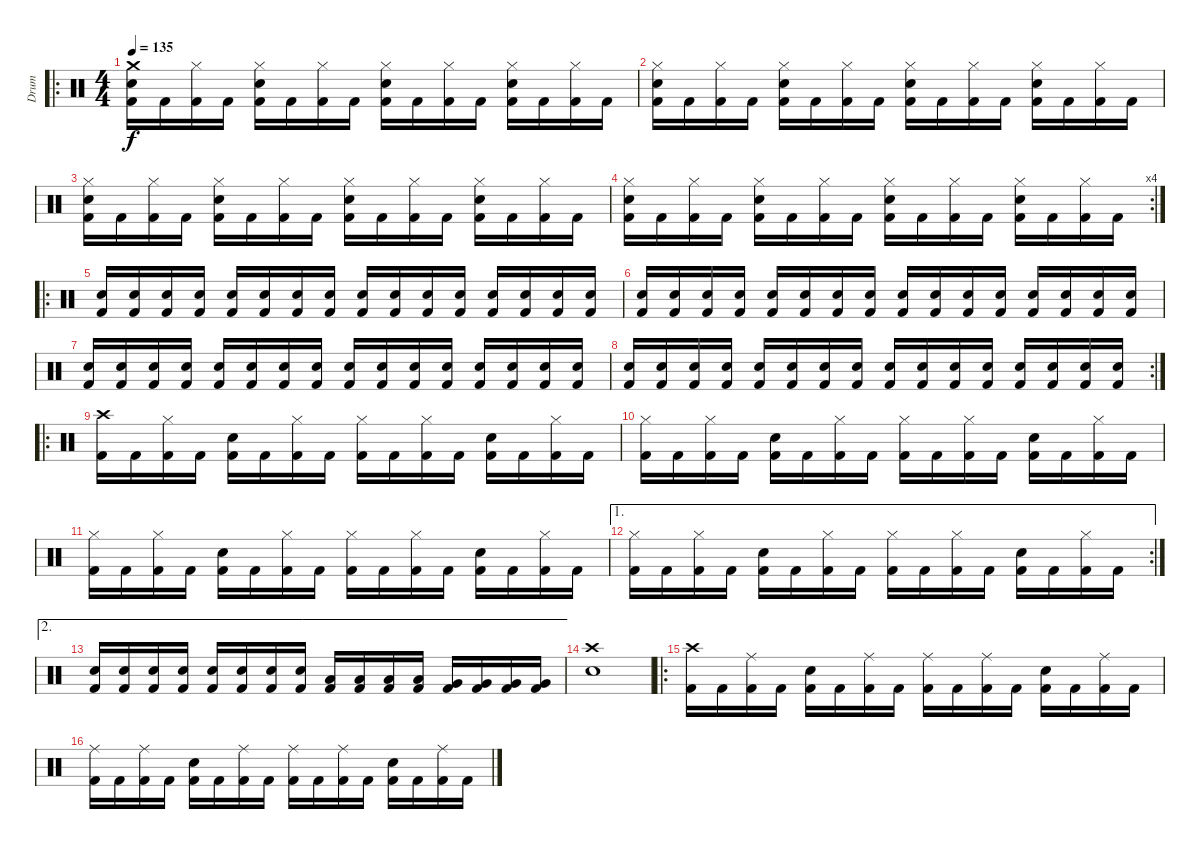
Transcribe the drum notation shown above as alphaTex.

\track ("Drum" "Drum") {instrument percussion}
\staff {score}
\articulation defaults
\ro
\ts (4 4)
\tempo 135
\clef neutral
\ks c
("Crash medium (hit)" "Electric Snare (hit)" "Kick (hit) 2").16{dy f} "Kick (hit) 2".16 ("Hi-Hat (closed)" "Kick (hit) 2").16 "Kick (hit) 2".16 ("Hi-Hat (closed)" "Electric Snare (hit)" "Kick (hit) 2").16 "Kick (hit) 2".16 ("Hi-Hat (closed)" "Kick (hit) 2").16 "Kick (hit) 2".16 ("Hi-Hat (closed)" "Electric Snare (hit)" "Kick (hit) 2").16 "Kick (hit) 2".16 ("Hi-Hat (closed)" "Kick (hit) 2").16 "Kick (hit) 2".16 ("Hi-Hat (closed)" "Electric Snare (hit)" "Kick (hit) 2").16 "Kick (hit) 2".16 ("Hi-Hat (closed)" "Kick (hit) 2").16 "Kick (hit) 2".16 |
("Hi-Hat (closed)" "Electric Snare (hit)" "Kick (hit) 2").16 "Kick (hit) 2".16 ("Hi-Hat (closed)" "Kick (hit) 2").16 "Kick (hit) 2".16 ("Hi-Hat (closed)" "Electric Snare (hit)" "Kick (hit) 2").16 "Kick (hit) 2".16 ("Hi-Hat (closed)" "Kick (hit) 2").16 "Kick (hit) 2".16 ("Hi-Hat (closed)" "Electric Snare (hit)" "Kick (hit) 2").16 "Kick (hit) 2".16 ("Hi-Hat (closed)" "Kick (hit) 2").16 "Kick (hit) 2".16 ("Hi-Hat (closed)" "Electric Snare (hit)" "Kick (hit) 2").16 "Kick (hit) 2".16 ("Hi-Hat (closed)" "Kick (hit) 2").16 "Kick (hit) 2".16 |
("Hi-Hat (closed)" "Electric Snare (hit)" "Kick (hit) 2").16 "Kick (hit) 2".16 ("Hi-Hat (closed)" "Kick (hit) 2").16 "Kick (hit) 2".16 ("Hi-Hat (closed)" "Electric Snare (hit)" "Kick (hit) 2").16 "Kick (hit) 2".16 ("Hi-Hat (closed)" "Kick (hit) 2").16 "Kick (hit) 2".16 ("Hi-Hat (closed)" "Electric Snare (hit)" "Kick (hit) 2").16 "Kick (hit) 2".16 ("Hi-Hat (closed)" "Kick (hit) 2").16 "Kick (hit) 2".16 ("Hi-Hat (closed)" "Electric Snare (hit)" "Kick (hit) 2").16 "Kick (hit) 2".16 ("Hi-Hat (closed)" "Kick (hit) 2").16 "Kick (hit) 2".16 |
\rc 4
("Hi-Hat (closed)" "Electric Snare (hit)" "Kick (hit) 2").16 "Kick (hit) 2".16 ("Hi-Hat (closed)" "Kick (hit) 2").16 "Kick (hit) 2".16 ("Hi-Hat (closed)" "Electric Snare (hit)" "Kick (hit) 2").16 "Kick (hit) 2".16 ("Hi-Hat (closed)" "Kick (hit) 2").16 "Kick (hit) 2".16 ("Hi-Hat (closed)" "Electric Snare (hit)" "Kick (hit) 2").16 "Kick (hit) 2".16 ("Hi-Hat (closed)" "Kick (hit) 2").16 "Kick (hit) 2".16 ("Hi-Hat (closed)" "Electric Snare (hit)" "Kick (hit) 2").16 "Kick (hit) 2".16 ("Hi-Hat (closed)" "Kick (hit) 2").16 "Kick (hit) 2".16 |
\ro
("Electric Snare (hit)" "Kick (hit) 2").16 ("Electric Snare (hit)" "Kick (hit) 2").16 ("Electric Snare (hit)" "Kick (hit) 2").16 ("Electric Snare (hit)" "Kick (hit) 2").16 ("Electric Snare (hit)" "Kick (hit) 2").16 ("Electric Snare (hit)" "Kick (hit) 2").16 ("Electric Snare (hit)" "Kick (hit) 2").16 ("Electric Snare (hit)" "Kick (hit) 2").16 ("Electric Snare (hit)" "Kick (hit) 2").16 ("Electric Snare (hit)" "Kick (hit) 2").16 ("Electric Snare (hit)" "Kick (hit) 2").16 ("Electric Snare (hit)" "Kick (hit) 2").16 ("Electric Snare (hit)" "Kick (hit) 2").16 ("Electric Snare (hit)" "Kick (hit) 2").16 ("Electric Snare (hit)" "Kick (hit) 2").16 ("Electric Snare (hit)" "Kick (hit) 2").16 |
("Electric Snare (hit)" "Kick (hit) 2").16 ("Electric Snare (hit)" "Kick (hit) 2").16 ("Electric Snare (hit)" "Kick (hit) 2").16 ("Electric Snare (hit)" "Kick (hit) 2").16 ("Electric Snare (hit)" "Kick (hit) 2").16 ("Electric Snare (hit)" "Kick (hit) 2").16 ("Electric Snare (hit)" "Kick (hit) 2").16 ("Electric Snare (hit)" "Kick (hit) 2").16 ("Electric Snare (hit)" "Kick (hit) 2").16 ("Electric Snare (hit)" "Kick (hit) 2").16 ("Electric Snare (hit)" "Kick (hit) 2").16 ("Electric Snare (hit)" "Kick (hit) 2").16 ("Electric Snare (hit)" "Kick (hit) 2").16 ("Electric Snare (hit)" "Kick (hit) 2").16 ("Electric Snare (hit)" "Kick (hit) 2").16 ("Electric Snare (hit)" "Kick (hit) 2").16 |
("Electric Snare (hit)" "Kick (hit) 2").16 ("Electric Snare (hit)" "Kick (hit) 2").16 ("Electric Snare (hit)" "Kick (hit) 2").16 ("Electric Snare (hit)" "Kick (hit) 2").16 ("Electric Snare (hit)" "Kick (hit) 2").16 ("Electric Snare (hit)" "Kick (hit) 2").16 ("Electric Snare (hit)" "Kick (hit) 2").16 ("Electric Snare (hit)" "Kick (hit) 2").16 ("Electric Snare (hit)" "Kick (hit) 2").16 ("Electric Snare (hit)" "Kick (hit) 2").16 ("Electric Snare (hit)" "Kick (hit) 2").16 ("Electric Snare (hit)" "Kick (hit) 2").16 ("Electric Snare (hit)" "Kick (hit) 2").16 ("Electric Snare (hit)" "Kick (hit) 2").16 ("Electric Snare (hit)" "Kick (hit) 2").16 ("Electric Snare (hit)" "Kick (hit) 2").16 |
\rc 2
("Electric Snare (hit)" "Kick (hit) 2").16 ("Electric Snare (hit)" "Kick (hit) 2").16 ("Electric Snare (hit)" "Kick (hit) 2").16 ("Electric Snare (hit)" "Kick (hit) 2").16 ("Electric Snare (hit)" "Kick (hit) 2").16 ("Electric Snare (hit)" "Kick (hit) 2").16 ("Electric Snare (hit)" "Kick (hit) 2").16 ("Electric Snare (hit)" "Kick (hit) 2").16 ("Electric Snare (hit)" "Kick (hit) 2").16 ("Electric Snare (hit)" "Kick (hit) 2").16 ("Electric Snare (hit)" "Kick (hit) 2").16 ("Electric Snare (hit)" "Kick (hit) 2").16 ("Electric Snare (hit)" "Kick (hit) 2").16 ("Electric Snare (hit)" "Kick (hit) 2").16 ("Electric Snare (hit)" "Kick (hit) 2").16 ("Electric Snare (hit)" "Kick (hit) 2").16 |
\ro
("Crash high (hit)" "Kick (hit) 2").16 "Kick (hit) 2".16 ("Hi-Hat (closed)" "Kick (hit) 2").16 "Kick (hit) 2".16 ("Electric Snare (hit)" "Kick (hit) 2").16 "Kick (hit) 2".16 ("Hi-Hat (closed)" "Kick (hit) 2").16 "Kick (hit) 2".16 ("Hi-Hat (closed)" "Kick (hit) 2").16 "Kick (hit) 2".16 ("Hi-Hat (closed)" "Kick (hit) 2").16 "Kick (hit) 2".16 ("Electric Snare (hit)" "Kick (hit) 2").16 "Kick (hit) 2".16 ("Hi-Hat (closed)" "Kick (hit) 2").16 "Kick (hit) 2".16 |
("Hi-Hat (closed)" "Kick (hit) 2").16 "Kick (hit) 2".16 ("Hi-Hat (closed)" "Kick (hit) 2").16 "Kick (hit) 2".16 ("Electric Snare (hit)" "Kick (hit) 2").16 "Kick (hit) 2".16 ("Hi-Hat (closed)" "Kick (hit) 2").16 "Kick (hit) 2".16 ("Hi-Hat (closed)" "Kick (hit) 2").16 "Kick (hit) 2".16 ("Hi-Hat (closed)" "Kick (hit) 2").16 "Kick (hit) 2".16 ("Electric Snare (hit)" "Kick (hit) 2").16 "Kick (hit) 2".16 ("Hi-Hat (closed)" "Kick (hit) 2").16 "Kick (hit) 2".16 |
("Hi-Hat (closed)" "Kick (hit) 2").16 "Kick (hit) 2".16 ("Hi-Hat (closed)" "Kick (hit) 2").16 "Kick (hit) 2".16 ("Electric Snare (hit)" "Kick (hit) 2").16 "Kick (hit) 2".16 ("Hi-Hat (closed)" "Kick (hit) 2").16 "Kick (hit) 2".16 ("Hi-Hat (closed)" "Kick (hit) 2").16 "Kick (hit) 2".16 ("Hi-Hat (closed)" "Kick (hit) 2").16 "Kick (hit) 2".16 ("Electric Snare (hit)" "Kick (hit) 2").16 "Kick (hit) 2".16 ("Hi-Hat (closed)" "Kick (hit) 2").16 "Kick (hit) 2".16 |
\ae 1
\rc 2
("Hi-Hat (closed)" "Kick (hit) 2").16 "Kick (hit) 2".16 ("Hi-Hat (closed)" "Kick (hit) 2").16 "Kick (hit) 2".16 ("Electric Snare (hit)" "Kick (hit) 2").16 "Kick (hit) 2".16 ("Hi-Hat (closed)" "Kick (hit) 2").16 "Kick (hit) 2".16 ("Hi-Hat (closed)" "Kick (hit) 2").16 "Kick (hit) 2".16 ("Hi-Hat (closed)" "Kick (hit) 2").16 "Kick (hit) 2".16 ("Electric Snare (hit)" "Kick (hit) 2").16 "Kick (hit) 2".16 ("Hi-Hat (closed)" "Kick (hit) 2").16 "Kick (hit) 2".16 |
\ae 2
("Electric Snare (hit)" "Kick (hit) 2").16 ("Electric Snare (hit)" "Kick (hit) 2").16 ("Electric Snare (hit)" "Kick (hit) 2").16 ("Electric Snare (hit)" "Kick (hit) 2").16 ("Electric Snare (hit)" "Kick (hit) 2").16 ("Electric Snare (hit)" "Kick (hit) 2").16 ("Electric Snare (hit)" "Kick (hit) 2").16 ("Electric Snare (hit)" "Kick (hit) 2").16 ("Low Tom (hit)" "Kick (hit) 2").16 ("Low Tom (hit)" "Kick (hit) 2").16 ("Low Tom (hit)" "Kick (hit) 2").16 ("Low Tom (hit)" "Kick (hit) 2").16 ("Very Low Tom (hit)" "Kick (hit) 2").16 ("Very Low Tom (hit)" "Kick (hit) 2").16 ("Very Low Tom (hit)" "Kick (hit) 2").16 ("Very Low Tom (hit)" "Kick (hit) 2").16 |
("Crash high (hit)" "Electric Snare (hit)").1 |
\ro
("Crash high (hit)" "Kick (hit) 2").16 "Kick (hit) 2".16 ("Ride (middle)" "Kick (hit) 2").16 "Kick (hit) 2".16 ("Electric Snare (hit)" "Kick (hit) 2").16 "Kick (hit) 2".16 ("Ride (middle)" "Kick (hit) 2").16 "Kick (hit) 2".16 ("Ride (middle)" "Kick (hit) 2").16 "Kick (hit) 2".16 ("Ride (middle)" "Kick (hit) 2").16 "Kick (hit) 2".16 ("Electric Snare (hit)" "Kick (hit) 2").16 "Kick (hit) 2".16 ("Ride (middle)" "Kick (hit) 2").16 "Kick (hit) 2".16 |
("Ride (middle)" "Kick (hit) 2").16 "Kick (hit) 2".16 ("Ride (middle)" "Kick (hit) 2").16 "Kick (hit) 2".16 ("Electric Snare (hit)" "Kick (hit) 2").16 "Kick (hit) 2".16 ("Ride (middle)" "Kick (hit) 2").16 "Kick (hit) 2".16 ("Ride (middle)" "Kick (hit) 2").16 "Kick (hit) 2".16 ("Ride (middle)" "Kick (hit) 2").16 "Kick (hit) 2".16 ("Electric Snare (hit)" "Kick (hit) 2").16 "Kick (hit) 2".16 ("Ride (middle)" "Kick (hit) 2").16 "Kick (hit) 2".16
